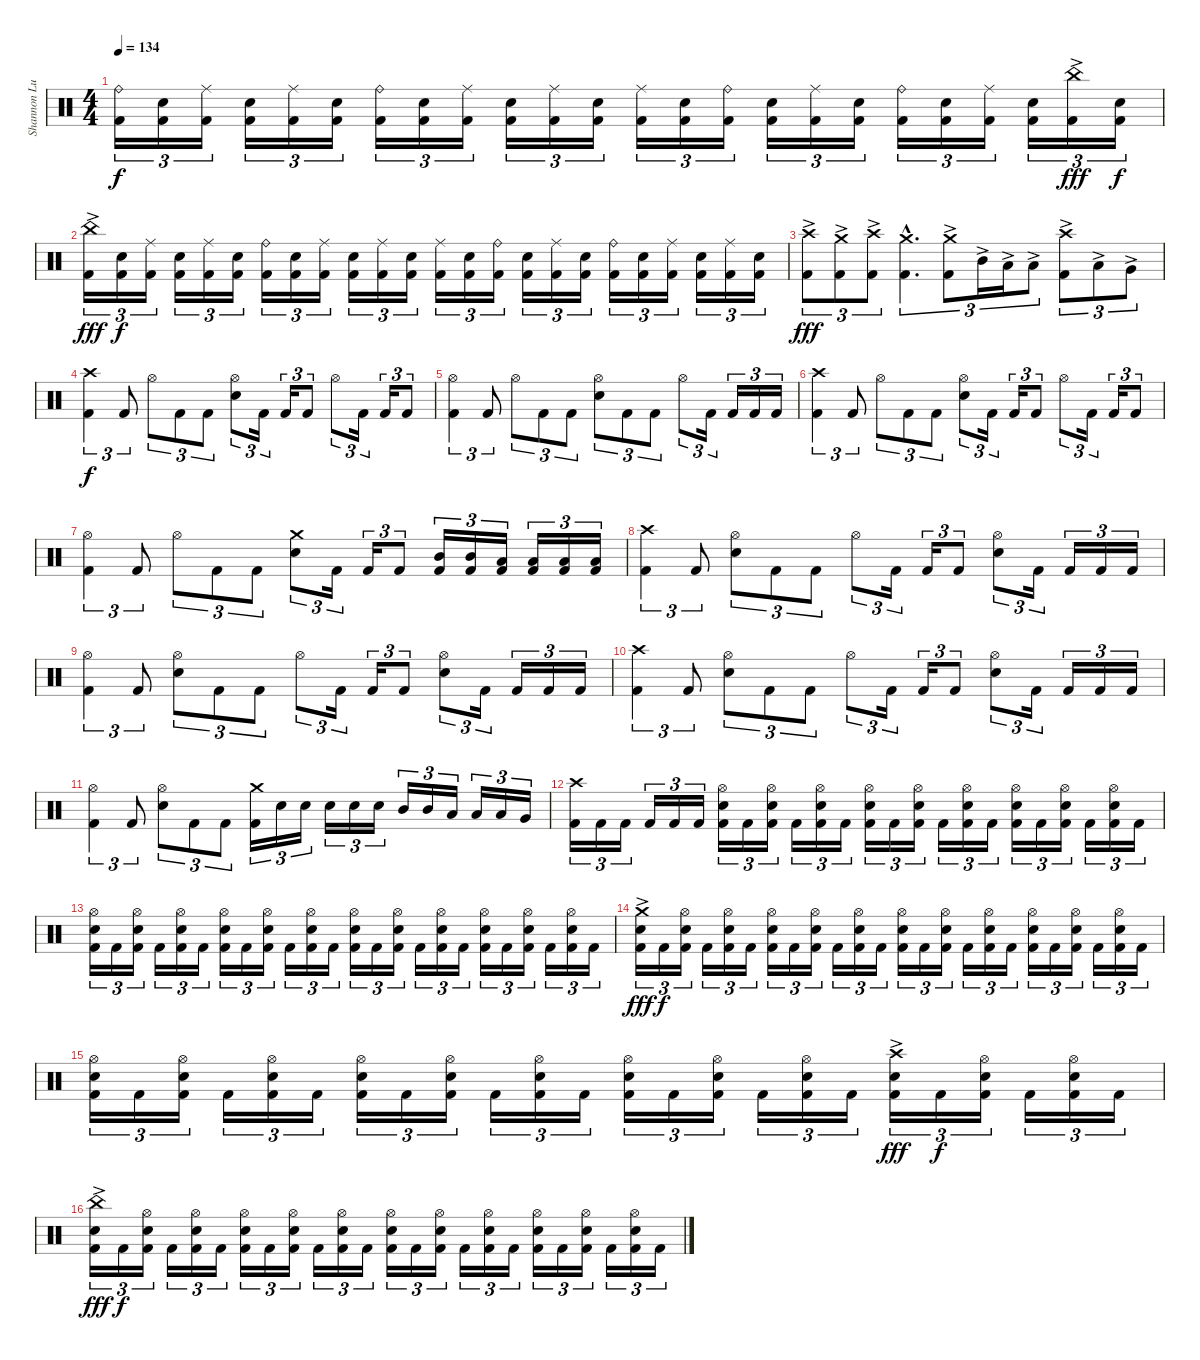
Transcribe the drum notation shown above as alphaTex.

\track ("Shannon Lucas [Drums (Since 2007)]" "Shannon Lu") {instrument percussion}
\staff {score}
\articulation defaults
\ts (4 4)
\tempo 134
\clef neutral
\ks c
("Ride (bell)" "Kick (hit) 2").16{tu (3 2) dy f} ("Snare (hit) 2" "Kick (hit) 2").16{tu (3 2)} ("Ride (middle)" "Kick (hit) 2").16{tu (3 2)} ("Snare (hit) 2" "Kick (hit) 2").16{tu (3 2)} ("Ride (middle)" "Kick (hit) 2").16{tu (3 2)} ("Snare (hit) 2" "Kick (hit) 2").16{tu (3 2)} ("Ride (bell)" "Kick (hit) 2").16{tu (3 2)} ("Snare (hit) 2" "Kick (hit) 2").16{tu (3 2)} ("Ride (middle)" "Kick (hit) 2").16{tu (3 2)} ("Snare (hit) 2" "Kick (hit) 2").16{tu (3 2)} ("Ride (middle)" "Kick (hit) 2").16{tu (3 2)} ("Snare (hit) 2" "Kick (hit) 2").16{tu (3 2)} ("Ride (middle)" "Kick (hit) 2").16{tu (3 2)} ("Snare (hit) 2" "Kick (hit) 2").16{tu (3 2)} ("Ride (bell)" "Kick (hit) 2").16{tu (3 2)} ("Snare (hit) 2" "Kick (hit) 2").16{tu (3 2)} ("Ride (middle)" "Kick (hit) 2").16{tu (3 2)} ("Snare (hit) 2" "Kick (hit) 2").16{tu (3 2)} ("Ride (bell)" "Kick (hit) 2").16{tu (3 2)} ("Snare (hit) 2" "Kick (hit) 2").16{tu (3 2)} ("Ride (middle)" "Kick (hit) 2").16{tu (3 2)} ("Snare (hit) 2" "Kick (hit) 2").16{tu (3 2)} ("China (hit)"{ac} "Kick (hit) 2").16{tu (3 2) dy fff} ("Snare (hit) 2" "Kick (hit) 2").16{tu (3 2) dy f} |
("China (hit)"{ac} "Kick (hit) 2").16{tu (3 2) dy fff} ("Snare (hit) 2" "Kick (hit) 2").16{tu (3 2) dy f} ("Ride (middle)" "Kick (hit) 2").16{tu (3 2)} ("Snare (hit) 2" "Kick (hit) 2").16{tu (3 2)} ("Ride (middle)" "Kick (hit) 2").16{tu (3 2)} ("Snare (hit) 2" "Kick (hit) 2").16{tu (3 2)} ("Ride (bell)" "Kick (hit) 2").16{tu (3 2)} ("Snare (hit) 2" "Kick (hit) 2").16{tu (3 2)} ("Ride (middle)" "Kick (hit) 2").16{tu (3 2)} ("Snare (hit) 2" "Kick (hit) 2").16{tu (3 2)} ("Ride (middle)" "Kick (hit) 2").16{tu (3 2)} ("Snare (hit) 2" "Kick (hit) 2").16{tu (3 2)} ("Ride (middle)" "Kick (hit) 2").16{tu (3 2)} ("Snare (hit) 2" "Kick (hit) 2").16{tu (3 2)} ("Ride (bell)" "Kick (hit) 2").16{tu (3 2)} ("Snare (hit) 2" "Kick (hit) 2").16{tu (3 2)} ("Ride (middle)" "Kick (hit) 2").16{tu (3 2)} ("Snare (hit) 2" "Kick (hit) 2").16{tu (3 2)} ("Ride (bell)" "Kick (hit) 2").16{tu (3 2)} ("Snare (hit) 2" "Kick (hit) 2").16{tu (3 2)} ("Ride (middle)" "Kick (hit) 2").16{tu (3 2)} ("Snare (hit) 2" "Kick (hit) 2").16{tu (3 2)} ("Ride (middle)" "Kick (hit) 2").16{tu (3 2)} ("Snare (hit) 2" "Kick (hit) 2").16{tu (3 2)} |
("Crash high (hit)"{ac} "Kick (hit) 2").8{tu (3 2) dy fff} ("Crash medium (hit)"{ac} "Kick (hit) 2").8{tu (3 2)} ("Crash high (hit)"{ac} "Kick (hit) 2").8{tu (3 2)} ("Crash medium (hit)"{hac} "Kick (hit) 2"{hac}).4{d tu (3 2)} ("Crash medium (hit)"{ac} "Kick (hit) 2"{ac}).8{tu (3 2)} "Mid Tom (hit)"{ac}.16{tu (3 2)} "Low Tom (hit)"{ac}.16{tu (3 2)} "Low Tom (hit)"{ac}.8{tu (3 2)} ("Kick (hit) 2"{ac} "Crash high (hit)").8{tu (3 2)} "Low Tom (hit)"{ac}.8{tu (3 2)} "Very Low Tom (hit)"{ac}.8{tu (3 2)} |
("Kick (hit) 2" "Crash high (hit)").4{tu (3 2) dy f} "Kick (hit) 2".8{tu (3 2)} "Hi-Hat (open)".8{tu (3 2)} "Kick (hit) 2".8{tu (3 2)} "Kick (hit) 2".8{tu (3 2)} ("Hi-Hat (open)" "Snare (hit) 2").8{tu (3 2)} "Kick (hit) 2".16{tu (3 2)} "Kick (hit) 2".16{tu (3 2)} "Kick (hit) 2".8{tu (3 2)} "Hi-Hat (open)".8{tu (3 2)} "Kick (hit) 2".16{tu (3 2)} "Kick (hit) 2".16{tu (3 2)} "Kick (hit) 2".8{tu (3 2)} |
("Kick (hit) 2" "Hi-Hat (open)").4{tu (3 2)} "Kick (hit) 2".8{tu (3 2)} "Hi-Hat (open)".8{tu (3 2)} "Kick (hit) 2".8{tu (3 2)} "Kick (hit) 2".8{tu (3 2)} ("Hi-Hat (open)" "Snare (hit) 2").8{tu (3 2)} "Kick (hit) 2".8{tu (3 2)} "Kick (hit) 2".8{tu (3 2)} "Hi-Hat (open)".8{tu (3 2)} "Kick (hit) 2".16{tu (3 2)} "Kick (hit) 2".16{tu (3 2)} "Kick (hit) 2".16{tu (3 2)} "Kick (hit) 2".16{tu (3 2)} |
("Kick (hit) 2" "Crash high (hit)").4{tu (3 2)} "Kick (hit) 2".8{tu (3 2)} "Hi-Hat (open)".8{tu (3 2)} "Kick (hit) 2".8{tu (3 2)} "Kick (hit) 2".8{tu (3 2)} ("Hi-Hat (open)" "Snare (hit) 2").8{tu (3 2)} "Kick (hit) 2".16{tu (3 2)} "Kick (hit) 2".16{tu (3 2)} "Kick (hit) 2".8{tu (3 2)} "Hi-Hat (open)".8{tu (3 2)} "Kick (hit) 2".16{tu (3 2)} "Kick (hit) 2".16{tu (3 2)} "Kick (hit) 2".8{tu (3 2)} |
("Kick (hit) 2" "Hi-Hat (open)").4{tu (3 2)} "Kick (hit) 2".8{tu (3 2)} "Hi-Hat (open)".8{tu (3 2)} "Kick (hit) 2".8{tu (3 2)} "Kick (hit) 2".8{tu (3 2)} ("Crash medium (hit)" "Snare (hit) 2").8{tu (3 2)} "Kick (hit) 2".16{tu (3 2)} "Kick (hit) 2".16{tu (3 2)} "Kick (hit) 2".8{tu (3 2)} ("Kick (hit) 2" "Mid Tom (hit)").16{tu (3 2)} ("Kick (hit) 2" "Mid Tom (hit)").16{tu (3 2)} ("Kick (hit) 2" "Low Tom (hit)").16{tu (3 2)} ("Kick (hit) 2" "Low Tom (hit)").16{tu (3 2)} ("Kick (hit) 2" "Low Floor Tom (hit)").16{tu (3 2)} ("Kick (hit) 2" "Low Floor Tom (hit)").16{tu (3 2)} |
("Kick (hit) 2" "Crash high (hit)").4{tu (3 2)} "Kick (hit) 2".8{tu (3 2)} ("Hi-Hat (open)" "Snare (hit) 2").8{tu (3 2)} "Kick (hit) 2".8{tu (3 2)} "Kick (hit) 2".8{tu (3 2)} "Hi-Hat (open)".8{tu (3 2)} "Kick (hit) 2".16{tu (3 2)} "Kick (hit) 2".16{tu (3 2)} "Kick (hit) 2".8{tu (3 2)} ("Hi-Hat (open)" "Snare (hit) 2").8{tu (3 2)} "Kick (hit) 2".16{tu (3 2)} "Kick (hit) 2".16{tu (3 2)} "Kick (hit) 2".16{tu (3 2)} "Kick (hit) 2".16{tu (3 2)} |
("Kick (hit) 2" "Hi-Hat (open)").4{tu (3 2)} "Kick (hit) 2".8{tu (3 2)} ("Hi-Hat (open)" "Snare (hit) 2").8{tu (3 2)} "Kick (hit) 2".8{tu (3 2)} "Kick (hit) 2".8{tu (3 2)} "Hi-Hat (open)".8{tu (3 2)} "Kick (hit) 2".16{tu (3 2)} "Kick (hit) 2".16{tu (3 2)} "Kick (hit) 2".8{tu (3 2)} ("Hi-Hat (open)" "Snare (hit) 2").8{tu (3 2)} "Kick (hit) 2".16{tu (3 2)} "Kick (hit) 2".16{tu (3 2)} "Kick (hit) 2".16{tu (3 2)} "Kick (hit) 2".16{tu (3 2)} |
("Kick (hit) 2" "Crash high (hit)").4{tu (3 2)} "Kick (hit) 2".8{tu (3 2)} ("Hi-Hat (open)" "Snare (hit) 2").8{tu (3 2)} "Kick (hit) 2".8{tu (3 2)} "Kick (hit) 2".8{tu (3 2)} "Hi-Hat (open)".8{tu (3 2)} "Kick (hit) 2".16{tu (3 2)} "Kick (hit) 2".16{tu (3 2)} "Kick (hit) 2".8{tu (3 2)} ("Hi-Hat (open)" "Snare (hit) 2").8{tu (3 2)} "Kick (hit) 2".16{tu (3 2)} "Kick (hit) 2".16{tu (3 2)} "Kick (hit) 2".16{tu (3 2)} "Kick (hit) 2".16{tu (3 2)} |
("Kick (hit) 2" "Hi-Hat (open)").4{tu (3 2)} "Kick (hit) 2".8{tu (3 2)} ("Hi-Hat (open)" "Snare (hit) 2").8{tu (3 2)} "Kick (hit) 2".8{tu (3 2)} "Kick (hit) 2".8{tu (3 2)} ("Crash medium (hit)" "Kick (hit) 2").16{tu (3 2)} "Snare (hit) 2".16{tu (3 2)} "Snare (hit) 2".16{tu (3 2)} "Snare (hit) 2".16{tu (3 2)} "Snare (hit) 2".16{tu (3 2)} "Snare (hit) 2".16{tu (3 2)} "Mid Tom (hit)".16{tu (3 2)} "Mid Tom (hit)".16{tu (3 2)} "Low Tom (hit)".16{tu (3 2)} "Low Tom (hit)".16{tu (3 2)} "Low Tom (hit)".16{tu (3 2)} "Very Low Tom (hit)".16{tu (3 2)} |
("Crash high (hit)" "Kick (hit) 2").16{tu (3 2)} "Kick (hit) 2".16{tu (3 2)} "Kick (hit) 2".16{tu (3 2)} "Kick (hit) 2".16{tu (3 2)} "Kick (hit) 2".16{tu (3 2)} "Kick (hit) 2".16{tu (3 2)} ("Hi-Hat (open)" "Snare (hit) 2" "Kick (hit) 2").16{tu (3 2)} "Kick (hit) 2".16{tu (3 2)} ("Hi-Hat (open)" "Snare (hit) 2" "Kick (hit) 2").16{tu (3 2)} "Kick (hit) 2".16{tu (3 2)} ("Hi-Hat (open)" "Snare (hit) 2" "Kick (hit) 2").16{tu (3 2)} "Kick (hit) 2".16{tu (3 2)} ("Hi-Hat (open)" "Snare (hit) 2" "Kick (hit) 2").16{tu (3 2)} "Kick (hit) 2".16{tu (3 2)} ("Hi-Hat (open)" "Snare (hit) 2" "Kick (hit) 2").16{tu (3 2)} "Kick (hit) 2".16{tu (3 2)} ("Hi-Hat (open)" "Snare (hit) 2" "Kick (hit) 2").16{tu (3 2)} "Kick (hit) 2".16{tu (3 2)} ("Hi-Hat (open)" "Snare (hit) 2" "Kick (hit) 2").16{tu (3 2)} "Kick (hit) 2".16{tu (3 2)} ("Hi-Hat (open)" "Snare (hit) 2" "Kick (hit) 2").16{tu (3 2)} "Kick (hit) 2".16{tu (3 2)} ("Hi-Hat (open)" "Snare (hit) 2" "Kick (hit) 2").16{tu (3 2)} "Kick (hit) 2".16{tu (3 2)} |
("Hi-Hat (open)" "Snare (hit) 2" "Kick (hit) 2").16{tu (3 2)} "Kick (hit) 2".16{tu (3 2)} ("Hi-Hat (open)" "Snare (hit) 2" "Kick (hit) 2").16{tu (3 2)} "Kick (hit) 2".16{tu (3 2)} ("Hi-Hat (open)" "Snare (hit) 2" "Kick (hit) 2").16{tu (3 2)} "Kick (hit) 2".16{tu (3 2)} ("Hi-Hat (open)" "Snare (hit) 2" "Kick (hit) 2").16{tu (3 2)} "Kick (hit) 2".16{tu (3 2)} ("Hi-Hat (open)" "Snare (hit) 2" "Kick (hit) 2").16{tu (3 2)} "Kick (hit) 2".16{tu (3 2)} ("Hi-Hat (open)" "Snare (hit) 2" "Kick (hit) 2").16{tu (3 2)} "Kick (hit) 2".16{tu (3 2)} ("Hi-Hat (open)" "Snare (hit) 2" "Kick (hit) 2").16{tu (3 2)} "Kick (hit) 2".16{tu (3 2)} ("Hi-Hat (open)" "Snare (hit) 2" "Kick (hit) 2").16{tu (3 2)} "Kick (hit) 2".16{tu (3 2)} ("Hi-Hat (open)" "Snare (hit) 2" "Kick (hit) 2").16{tu (3 2)} "Kick (hit) 2".16{tu (3 2)} ("Hi-Hat (open)" "Snare (hit) 2" "Kick (hit) 2").16{tu (3 2)} "Kick (hit) 2".16{tu (3 2)} ("Hi-Hat (open)" "Snare (hit) 2" "Kick (hit) 2").16{tu (3 2)} "Kick (hit) 2".16{tu (3 2)} ("Hi-Hat (open)" "Snare (hit) 2" "Kick (hit) 2").16{tu (3 2)} "Kick (hit) 2".16{tu (3 2)} |
("Crash medium (hit)"{ac} "Snare (hit) 2" "Kick (hit) 2").16{tu (3 2) dy fff} "Kick (hit) 2".16{tu (3 2) dy f} ("Hi-Hat (open)" "Snare (hit) 2" "Kick (hit) 2").16{tu (3 2)} "Kick (hit) 2".16{tu (3 2)} ("Hi-Hat (open)" "Snare (hit) 2" "Kick (hit) 2").16{tu (3 2)} "Kick (hit) 2".16{tu (3 2)} ("Hi-Hat (open)" "Snare (hit) 2" "Kick (hit) 2").16{tu (3 2)} "Kick (hit) 2".16{tu (3 2)} ("Hi-Hat (open)" "Snare (hit) 2" "Kick (hit) 2").16{tu (3 2)} "Kick (hit) 2".16{tu (3 2)} ("Hi-Hat (open)" "Snare (hit) 2" "Kick (hit) 2").16{tu (3 2)} "Kick (hit) 2".16{tu (3 2)} ("Hi-Hat (open)" "Snare (hit) 2" "Kick (hit) 2").16{tu (3 2)} "Kick (hit) 2".16{tu (3 2)} ("Hi-Hat (open)" "Snare (hit) 2" "Kick (hit) 2").16{tu (3 2)} "Kick (hit) 2".16{tu (3 2)} ("Hi-Hat (open)" "Snare (hit) 2" "Kick (hit) 2").16{tu (3 2)} "Kick (hit) 2".16{tu (3 2)} ("Hi-Hat (open)" "Snare (hit) 2" "Kick (hit) 2").16{tu (3 2)} "Kick (hit) 2".16{tu (3 2)} ("Hi-Hat (open)" "Snare (hit) 2" "Kick (hit) 2").16{tu (3 2)} "Kick (hit) 2".16{tu (3 2)} ("Hi-Hat (open)" "Snare (hit) 2" "Kick (hit) 2").16{tu (3 2)} "Kick (hit) 2".16{tu (3 2)} |
("Hi-Hat (open)" "Snare (hit) 2" "Kick (hit) 2").16{tu (3 2)} "Kick (hit) 2".16{tu (3 2)} ("Hi-Hat (open)" "Snare (hit) 2" "Kick (hit) 2").16{tu (3 2)} "Kick (hit) 2".16{tu (3 2)} ("Hi-Hat (open)" "Snare (hit) 2" "Kick (hit) 2").16{tu (3 2)} "Kick (hit) 2".16{tu (3 2)} ("Hi-Hat (open)" "Snare (hit) 2" "Kick (hit) 2").16{tu (3 2)} "Kick (hit) 2".16{tu (3 2)} ("Hi-Hat (open)" "Snare (hit) 2" "Kick (hit) 2").16{tu (3 2)} "Kick (hit) 2".16{tu (3 2)} ("Hi-Hat (open)" "Snare (hit) 2" "Kick (hit) 2").16{tu (3 2)} "Kick (hit) 2".16{tu (3 2)} ("Hi-Hat (open)" "Snare (hit) 2" "Kick (hit) 2").16{tu (3 2)} "Kick (hit) 2".16{tu (3 2)} ("Hi-Hat (open)" "Snare (hit) 2" "Kick (hit) 2").16{tu (3 2)} "Kick (hit) 2".16{tu (3 2)} ("Hi-Hat (open)" "Snare (hit) 2" "Kick (hit) 2").16{tu (3 2)} "Kick (hit) 2".16{tu (3 2)} ("Crash high (hit)"{ac} "Snare (hit) 2" "Kick (hit) 2").16{tu (3 2) dy fff} "Kick (hit) 2".16{tu (3 2) dy f} ("Hi-Hat (open)" "Snare (hit) 2" "Kick (hit) 2").16{tu (3 2)} "Kick (hit) 2".16{tu (3 2)} ("Hi-Hat (open)" "Snare (hit) 2" "Kick (hit) 2").16{tu (3 2)} "Kick (hit) 2".16{tu (3 2)} |
("China (hit)"{ac} "Snare (hit) 2" "Kick (hit) 2").16{tu (3 2) dy fff} "Kick (hit) 2".16{tu (3 2) dy f} ("Hi-Hat (open)" "Snare (hit) 2" "Kick (hit) 2").16{tu (3 2)} "Kick (hit) 2".16{tu (3 2)} ("Hi-Hat (open)" "Snare (hit) 2" "Kick (hit) 2").16{tu (3 2)} "Kick (hit) 2".16{tu (3 2)} ("Hi-Hat (open)" "Snare (hit) 2" "Kick (hit) 2").16{tu (3 2)} "Kick (hit) 2".16{tu (3 2)} ("Hi-Hat (open)" "Snare (hit) 2" "Kick (hit) 2").16{tu (3 2)} "Kick (hit) 2".16{tu (3 2)} ("Hi-Hat (open)" "Snare (hit) 2" "Kick (hit) 2").16{tu (3 2)} "Kick (hit) 2".16{tu (3 2)} ("Hi-Hat (open)" "Snare (hit) 2" "Kick (hit) 2").16{tu (3 2)} "Kick (hit) 2".16{tu (3 2)} ("Hi-Hat (open)" "Snare (hit) 2" "Kick (hit) 2").16{tu (3 2)} "Kick (hit) 2".16{tu (3 2)} ("Hi-Hat (open)" "Snare (hit) 2" "Kick (hit) 2").16{tu (3 2)} "Kick (hit) 2".16{tu (3 2)} ("Hi-Hat (open)" "Snare (hit) 2" "Kick (hit) 2").16{tu (3 2)} "Kick (hit) 2".16{tu (3 2)} ("Hi-Hat (open)" "Snare (hit) 2" "Kick (hit) 2").16{tu (3 2)} "Kick (hit) 2".16{tu (3 2)} ("Hi-Hat (open)" "Snare (hit) 2" "Kick (hit) 2").16{tu (3 2)} "Kick (hit) 2".16{tu (3 2)}
